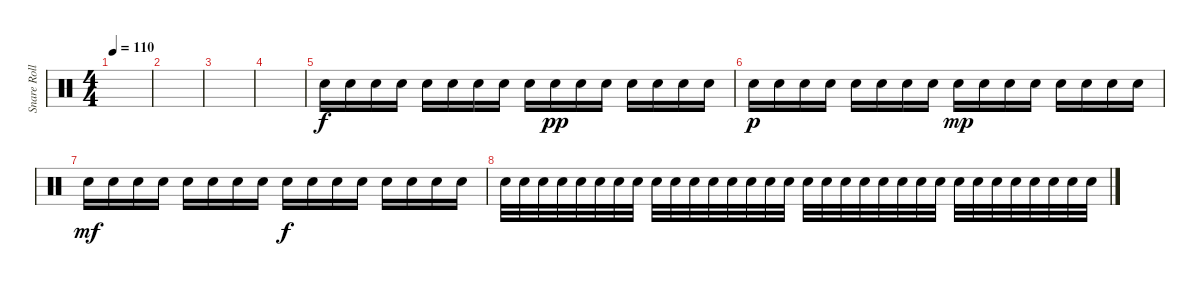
\track ("Snare Roll" "Snare Roll") {instrument percussion}
\staff {score}
\articulation defaults
\ts (4 4)
\tempo 110
\clef neutral
\ks c
|
|
|
|
"Electric Snare (hit)".16 "Electric Snare (hit)".16 "Electric Snare (hit)".16 "Electric Snare (hit)".16 "Electric Snare (hit)".16 "Electric Snare (hit)".16 "Electric Snare (hit)".16 "Electric Snare (hit)".16 "Electric Snare (hit)".16 "Electric Snare (hit)".16{dy pp} "Electric Snare (hit)".16 "Electric Snare (hit)".16 "Electric Snare (hit)".16 "Electric Snare (hit)".16 "Electric Snare (hit)".16 "Electric Snare (hit)".16 |
"Electric Snare (hit)".16{dy p} "Electric Snare (hit)".16 "Electric Snare (hit)".16 "Electric Snare (hit)".16 "Electric Snare (hit)".16 "Electric Snare (hit)".16 "Electric Snare (hit)".16 "Electric Snare (hit)".16 "Electric Snare (hit)".16{dy mp} "Electric Snare (hit)".16 "Electric Snare (hit)".16 "Electric Snare (hit)".16 "Electric Snare (hit)".16 "Electric Snare (hit)".16 "Electric Snare (hit)".16 "Electric Snare (hit)".16 |
"Electric Snare (hit)".16{dy mf} "Electric Snare (hit)".16 "Electric Snare (hit)".16 "Electric Snare (hit)".16 "Electric Snare (hit)".16 "Electric Snare (hit)".16 "Electric Snare (hit)".16 "Electric Snare (hit)".16 "Electric Snare (hit)".16{dy f} "Electric Snare (hit)".16 "Electric Snare (hit)".16 "Electric Snare (hit)".16 "Electric Snare (hit)".16 "Electric Snare (hit)".16 "Electric Snare (hit)".16 "Electric Snare (hit)".16 |
"Electric Snare (hit)".32 "Electric Snare (hit)".32 "Electric Snare (hit)".32 "Electric Snare (hit)".32 "Electric Snare (hit)".32 "Electric Snare (hit)".32 "Electric Snare (hit)".32 "Electric Snare (hit)".32 "Electric Snare (hit)".32 "Electric Snare (hit)".32 "Electric Snare (hit)".32 "Electric Snare (hit)".32 "Electric Snare (hit)".32 "Electric Snare (hit)".32 "Electric Snare (hit)".32 "Electric Snare (hit)".32 "Electric Snare (hit)".32 "Electric Snare (hit)".32 "Electric Snare (hit)".32 "Electric Snare (hit)".32 "Electric Snare (hit)".32 "Electric Snare (hit)".32 "Electric Snare (hit)".32 "Electric Snare (hit)".32 "Electric Snare (hit)".32 "Electric Snare (hit)".32 "Electric Snare (hit)".32 "Electric Snare (hit)".32 "Electric Snare (hit)".32 "Electric Snare (hit)".32 "Electric Snare (hit)".32 "Electric Snare (hit)".32
